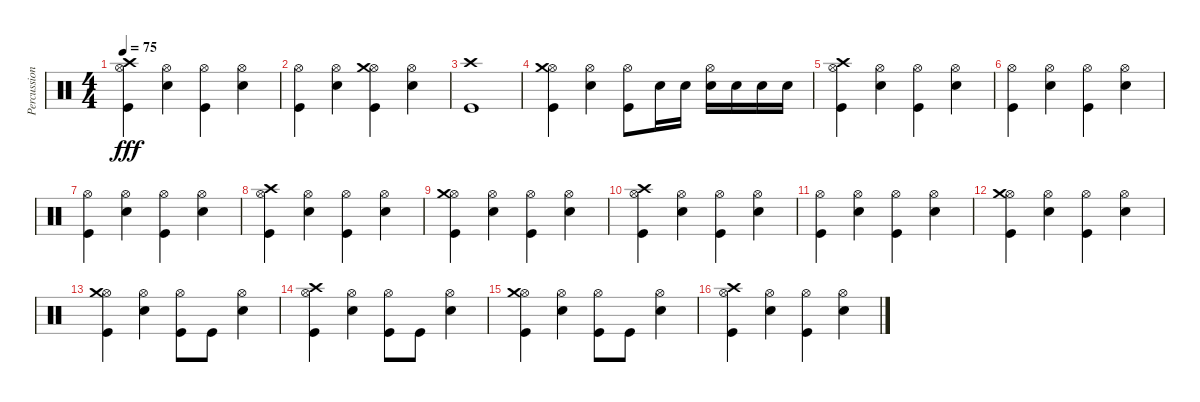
\track ("Percussion" "Percussion") {instrument percussion}
\staff {score}
\articulation defaults
\ts (4 4)
\tempo 75
\clef neutral
\ks c
("Hi-Hat (open)" "Crash high (hit)" "Kick (hit)").4{dy fff} ("Hi-Hat (open)" "Snare (hit) 2").4 ("Hi-Hat (open)" "Kick (hit)").4 ("Hi-Hat (open)" "Snare (hit) 2").4 |
("Hi-Hat (open)" "Kick (hit)").4 ("Hi-Hat (open)" "Snare (hit) 2").4 ("Hi-Hat (open)" "Crash medium (hit)" "Kick (hit)").4 ("Hi-Hat (open)" "Snare (hit) 2").4 |
("Crash high (hit)" "Kick (hit)").1 |
("Hi-Hat (open)" "Crash medium (hit)" "Kick (hit)").4 ("Hi-Hat (open)" "Snare (hit) 2").4 ("Hi-Hat (open)" "Kick (hit)").8 "Snare (hit) 2".16 "Snare (hit) 2".16 ("Hi-Hat (open)" "Snare (hit) 2").16 "Snare (hit) 2".16 "Snare (hit) 2".16 "Snare (hit) 2".16 |
("Hi-Hat (open)" "Crash high (hit)" "Kick (hit)").4 ("Hi-Hat (open)" "Snare (hit) 2").4 ("Hi-Hat (open)" "Kick (hit)").4 ("Hi-Hat (open)" "Snare (hit) 2").4 |
("Hi-Hat (open)" "Kick (hit)").4 ("Hi-Hat (open)" "Snare (hit) 2").4 ("Hi-Hat (open)" "Kick (hit)").4 ("Hi-Hat (open)" "Snare (hit) 2").4 |
("Hi-Hat (open)" "Kick (hit)").4 ("Hi-Hat (open)" "Snare (hit) 2").4 ("Hi-Hat (open)" "Kick (hit)").4 ("Hi-Hat (open)" "Snare (hit) 2").4 |
("Hi-Hat (open)" "Crash high (hit)" "Kick (hit)").4 ("Hi-Hat (open)" "Snare (hit) 2").4 ("Hi-Hat (open)" "Kick (hit)").4 ("Hi-Hat (open)" "Snare (hit) 2").4 |
("Hi-Hat (open)" "Crash medium (hit)" "Kick (hit)").4 ("Hi-Hat (open)" "Snare (hit) 2").4 ("Hi-Hat (open)" "Kick (hit)").4 ("Hi-Hat (open)" "Snare (hit) 2").4 |
("Hi-Hat (open)" "Crash high (hit)" "Kick (hit)").4 ("Hi-Hat (open)" "Snare (hit) 2").4 ("Hi-Hat (open)" "Kick (hit)").4 ("Hi-Hat (open)" "Snare (hit) 2").4 |
("Hi-Hat (open)" "Kick (hit)").4 ("Hi-Hat (open)" "Snare (hit) 2").4 ("Hi-Hat (open)" "Kick (hit)").4 ("Hi-Hat (open)" "Snare (hit) 2").4 |
("Hi-Hat (open)" "Crash medium (hit)" "Kick (hit)").4 ("Hi-Hat (open)" "Snare (hit) 2").4 ("Hi-Hat (open)" "Kick (hit)").4 ("Hi-Hat (open)" "Snare (hit) 2").4 |
("Hi-Hat (open)" "Crash medium (hit)" "Kick (hit)").4 ("Hi-Hat (open)" "Snare (hit) 2").4 ("Hi-Hat (open)" "Kick (hit)").8 "Kick (hit)".8 ("Hi-Hat (open)" "Snare (hit) 2").4 |
("Hi-Hat (open)" "Crash high (hit)" "Kick (hit)").4 ("Hi-Hat (open)" "Snare (hit) 2").4 ("Hi-Hat (open)" "Kick (hit)").8 "Kick (hit)".8 ("Hi-Hat (open)" "Snare (hit) 2").4 |
("Hi-Hat (open)" "Crash medium (hit)" "Kick (hit)").4 ("Hi-Hat (open)" "Snare (hit) 2").4 ("Hi-Hat (open)" "Kick (hit)").8 "Kick (hit)".8 ("Hi-Hat (open)" "Snare (hit) 2").4 |
("Hi-Hat (open)" "Crash high (hit)" "Kick (hit)").4 ("Hi-Hat (open)" "Snare (hit) 2").4 ("Hi-Hat (open)" "Kick (hit)").4 ("Hi-Hat (open)" "Snare (hit) 2").4
